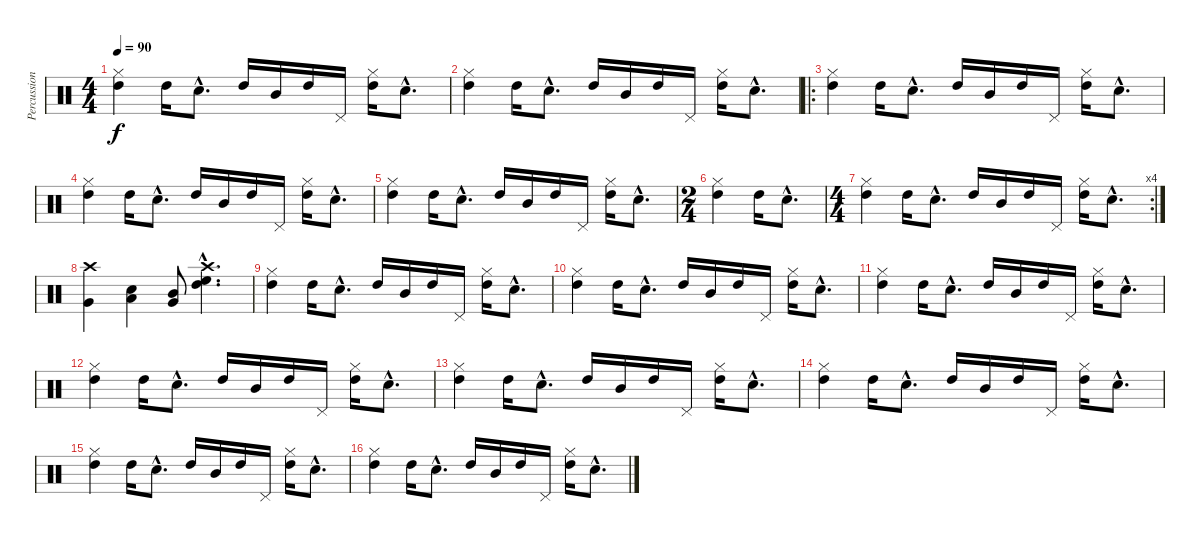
\track ("Percussions(J.Porcaro)" "Percussion") {instrument percussion}
\staff {score}
\articulation defaults
\ts (4 4)
\tempo 90
\clef neutral
\ks c
("High Tom (hit)" "Hi-Hat (closed)").4{dy f} "High Tom (hit)".16 "Snare (hit) 2"{hac}.8{d} "High Tom (hit)".16 "Mid Tom (hit)".16 "High Tom (hit)".16 "Pedal Hi-Hat (hit)".16 ("High Tom (hit)" "Hi-Hat (closed)").16 "Snare (hit) 2"{hac}.8{d} |
("High Tom (hit)" "Hi-Hat (closed)").4 "High Tom (hit)".16 "Snare (hit) 2"{hac}.8{d} "High Tom (hit)".16 "Mid Tom (hit)".16 "High Tom (hit)".16 "Pedal Hi-Hat (hit)".16 ("High Tom (hit)" "Hi-Hat (closed)").16 "Snare (hit) 2"{hac}.8{d} |
\ro
("High Tom (hit)" "Hi-Hat (closed)").4 "High Tom (hit)".16 "Snare (hit) 2"{hac}.8{d} "High Tom (hit)".16 "Mid Tom (hit)".16 "High Tom (hit)".16 "Pedal Hi-Hat (hit)".16 ("High Tom (hit)" "Hi-Hat (closed)").16 "Snare (hit) 2"{hac}.8{d} |
("High Tom (hit)" "Hi-Hat (closed)").4 "High Tom (hit)".16 "Snare (hit) 2"{hac}.8{d} "High Tom (hit)".16 "Mid Tom (hit)".16 "High Tom (hit)".16 "Pedal Hi-Hat (hit)".16 ("High Tom (hit)" "Hi-Hat (closed)").16 "Snare (hit) 2"{hac}.8{d} |
("High Tom (hit)" "Hi-Hat (closed)").4 "High Tom (hit)".16 "Snare (hit) 2"{hac}.8{d} "High Tom (hit)".16 "Mid Tom (hit)".16 "High Tom (hit)".16 "Pedal Hi-Hat (hit)".16 ("High Tom (hit)" "Hi-Hat (closed)").16 "Snare (hit) 2"{hac}.8{d} |
\ts (2 4)
("High Tom (hit)" "Hi-Hat (closed)").4 "High Tom (hit)".16 "Snare (hit) 2"{hac}.8{d} |
\rc 4
\ts (4 4)
("High Tom (hit)" "Hi-Hat (closed)").4 "High Tom (hit)".16 "Snare (hit) 2"{hac}.8{d} "High Tom (hit)".16 "Mid Tom (hit)".16 "High Tom (hit)".16 "Pedal Hi-Hat (hit)".16 ("High Tom (hit)" "Hi-Hat (closed)").16 "Snare (hit) 2"{hac}.8{d} |
("Very Low Tom (hit)" "Crash high (hit)").4 ("Low Tom (hit)" "Snare (hit) 2").4 ("Mid Tom (hit)" "Very Low Tom (hit)").8 ("High Tom (hit)"{hac} "High Floor Tom (hit)"{hac} "Crash high (hit)"{hac}).4{d} |
("High Tom (hit)" "Hi-Hat (closed)").4 "High Tom (hit)".16 "Snare (hit) 2"{hac}.8{d} "High Tom (hit)".16 "Mid Tom (hit)".16 "High Tom (hit)".16 "Pedal Hi-Hat (hit)".16 ("High Tom (hit)" "Hi-Hat (closed)").16 "Snare (hit) 2"{hac}.8{d} |
("High Tom (hit)" "Hi-Hat (closed)").4 "High Tom (hit)".16 "Snare (hit) 2"{hac}.8{d} "High Tom (hit)".16 "Mid Tom (hit)".16 "High Tom (hit)".16 "Pedal Hi-Hat (hit)".16 ("High Tom (hit)" "Hi-Hat (closed)").16 "Snare (hit) 2"{hac}.8{d} |
("High Tom (hit)" "Hi-Hat (closed)").4 "High Tom (hit)".16 "Snare (hit) 2"{hac}.8{d} "High Tom (hit)".16 "Mid Tom (hit)".16 "High Tom (hit)".16 "Pedal Hi-Hat (hit)".16 ("High Tom (hit)" "Hi-Hat (closed)").16 "Snare (hit) 2"{hac}.8{d} |
("High Tom (hit)" "Hi-Hat (closed)").4 "High Tom (hit)".16 "Snare (hit) 2"{hac}.8{d} "High Tom (hit)".16 "Mid Tom (hit)".16 "High Tom (hit)".16 "Pedal Hi-Hat (hit)".16 ("High Tom (hit)" "Hi-Hat (closed)").16 "Snare (hit) 2"{hac}.8{d} |
("High Tom (hit)" "Hi-Hat (closed)").4 "High Tom (hit)".16 "Snare (hit) 2"{hac}.8{d} "High Tom (hit)".16 "Mid Tom (hit)".16 "High Tom (hit)".16 "Pedal Hi-Hat (hit)".16 ("High Tom (hit)" "Hi-Hat (closed)").16 "Snare (hit) 2"{hac}.8{d} |
("High Tom (hit)" "Hi-Hat (closed)").4 "High Tom (hit)".16 "Snare (hit) 2"{hac}.8{d} "High Tom (hit)".16 "Mid Tom (hit)".16 "High Tom (hit)".16 "Pedal Hi-Hat (hit)".16 ("High Tom (hit)" "Hi-Hat (closed)").16 "Snare (hit) 2"{hac}.8{d} |
("High Tom (hit)" "Hi-Hat (closed)").4 "High Tom (hit)".16 "Snare (hit) 2"{hac}.8{d} "High Tom (hit)".16 "Mid Tom (hit)".16 "High Tom (hit)".16 "Pedal Hi-Hat (hit)".16 ("High Tom (hit)" "Hi-Hat (closed)").16 "Snare (hit) 2"{hac}.8{d} |
("High Tom (hit)" "Hi-Hat (closed)").4 "High Tom (hit)".16 "Snare (hit) 2"{hac}.8{d} "High Tom (hit)".16 "Mid Tom (hit)".16 "High Tom (hit)".16 "Pedal Hi-Hat (hit)".16 ("High Tom (hit)" "Hi-Hat (closed)").16 "Snare (hit) 2"{hac}.8{d}
